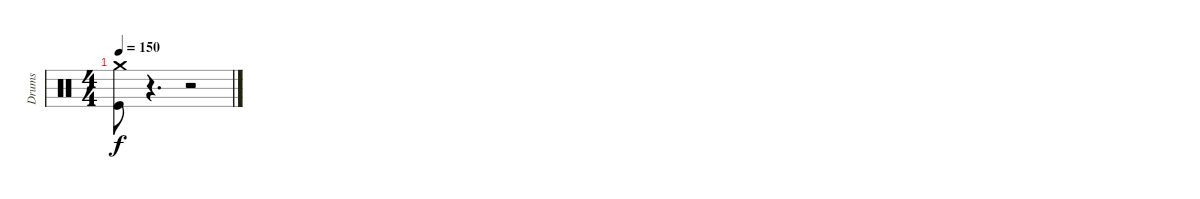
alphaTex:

\track ("Drums" "Drums") {instrument percussion}
\staff {score}
\articulation defaults
\ts (4 4)
\tempo 150
\clef neutral
\ks c
("Crash medium (hit)" "Kick (hit)").8{dy f} r.4{d volume 0} r.2
